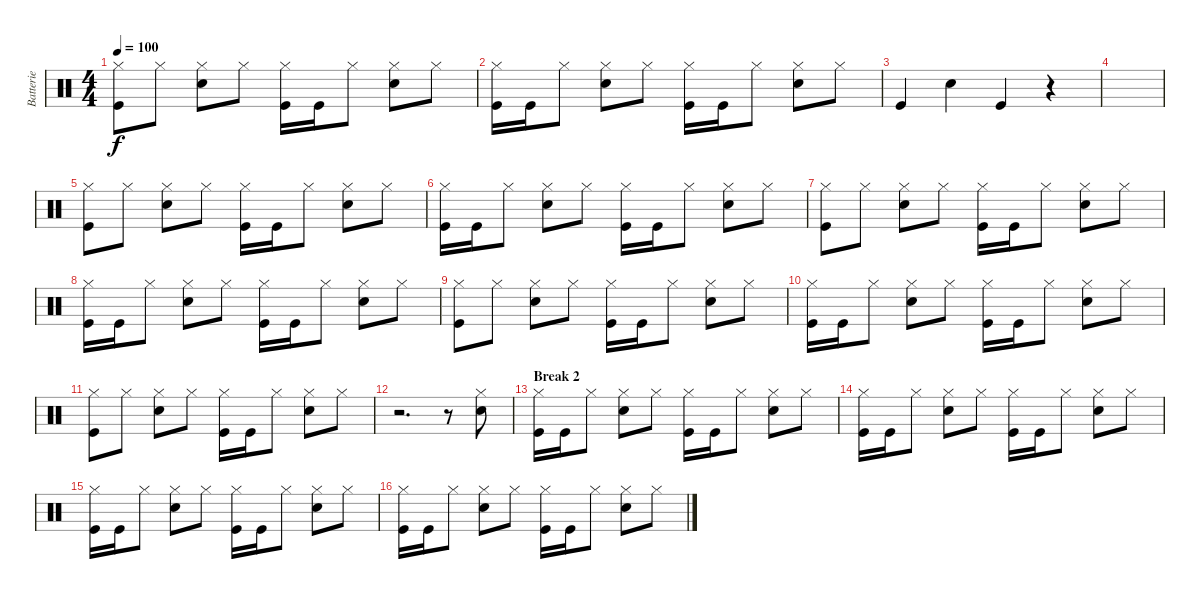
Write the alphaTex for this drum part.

\track ("Batterie " "Batterie ") {instrument percussion}
\staff {score}
\articulation defaults
\ts (4 4)
\tempo 100
\clef neutral
\ks c
("Hi-Hat (closed)" "Kick (hit)").8{dy f} "Hi-Hat (closed)".8 ("Electric Snare (hit)" "Hi-Hat (closed)").8 "Hi-Hat (closed)".8 ("Hi-Hat (closed)" "Kick (hit)").16 "Kick (hit)".16 "Hi-Hat (closed)".8 ("Electric Snare (hit)" "Hi-Hat (closed)").8 "Hi-Hat (closed)".8 |
("Hi-Hat (closed)" "Kick (hit)").16 "Kick (hit)".16 "Hi-Hat (closed)".8 ("Electric Snare (hit)" "Hi-Hat (closed)").8 "Hi-Hat (closed)".8 ("Hi-Hat (closed)" "Kick (hit)").16 "Kick (hit)".16 "Hi-Hat (closed)".8 ("Electric Snare (hit)" "Hi-Hat (closed)").8 "Hi-Hat (closed)".8 |
"Kick (hit)".4 "Electric Snare (hit)".4 "Kick (hit)".4 r.4 |
|
("Hi-Hat (closed)" "Kick (hit)").8 "Hi-Hat (closed)".8 ("Electric Snare (hit)" "Hi-Hat (closed)").8 "Hi-Hat (closed)".8 ("Hi-Hat (closed)" "Kick (hit)").16 "Kick (hit)".16 "Hi-Hat (closed)".8 ("Electric Snare (hit)" "Hi-Hat (closed)").8 "Hi-Hat (closed)".8 |
("Hi-Hat (closed)" "Kick (hit)").16 "Kick (hit)".16 "Hi-Hat (closed)".8 ("Electric Snare (hit)" "Hi-Hat (closed)").8 "Hi-Hat (closed)".8 ("Hi-Hat (closed)" "Kick (hit)").16 "Kick (hit)".16 "Hi-Hat (closed)".8 ("Electric Snare (hit)" "Hi-Hat (closed)").8 "Hi-Hat (closed)".8 |
("Hi-Hat (closed)" "Kick (hit)").8 "Hi-Hat (closed)".8 ("Electric Snare (hit)" "Hi-Hat (closed)").8 "Hi-Hat (closed)".8 ("Hi-Hat (closed)" "Kick (hit)").16 "Kick (hit)".16 "Hi-Hat (closed)".8 ("Electric Snare (hit)" "Hi-Hat (closed)").8 "Hi-Hat (closed)".8 |
("Hi-Hat (closed)" "Kick (hit)").16 "Kick (hit)".16 "Hi-Hat (closed)".8 ("Electric Snare (hit)" "Hi-Hat (closed)").8 "Hi-Hat (closed)".8 ("Hi-Hat (closed)" "Kick (hit)").16 "Kick (hit)".16 "Hi-Hat (closed)".8 ("Electric Snare (hit)" "Hi-Hat (closed)").8 "Hi-Hat (closed)".8 |
("Hi-Hat (closed)" "Kick (hit)").8 "Hi-Hat (closed)".8 ("Electric Snare (hit)" "Hi-Hat (closed)").8 "Hi-Hat (closed)".8 ("Hi-Hat (closed)" "Kick (hit)").16 "Kick (hit)".16 "Hi-Hat (closed)".8 ("Electric Snare (hit)" "Hi-Hat (closed)").8 "Hi-Hat (closed)".8 |
("Hi-Hat (closed)" "Kick (hit)").16 "Kick (hit)".16 "Hi-Hat (closed)".8 ("Electric Snare (hit)" "Hi-Hat (closed)").8 "Hi-Hat (closed)".8 ("Hi-Hat (closed)" "Kick (hit)").16 "Kick (hit)".16 "Hi-Hat (closed)".8 ("Electric Snare (hit)" "Hi-Hat (closed)").8 "Hi-Hat (closed)".8 |
("Hi-Hat (closed)" "Kick (hit)").8 "Hi-Hat (closed)".8 ("Electric Snare (hit)" "Hi-Hat (closed)").8 "Hi-Hat (closed)".8 ("Hi-Hat (closed)" "Kick (hit)").16 "Kick (hit)".16 "Hi-Hat (closed)".8 ("Electric Snare (hit)" "Hi-Hat (closed)").8 "Hi-Hat (closed)".8 |
r.2{d} r.8 ("Electric Snare (hit)" "Hi-Hat (closed)").8 |
\section ("" "Break 2")
("Hi-Hat (closed)" "Kick (hit)").16 "Kick (hit)".16 "Hi-Hat (closed)".8 ("Electric Snare (hit)" "Hi-Hat (closed)").8 "Hi-Hat (closed)".8 ("Hi-Hat (closed)" "Kick (hit)").16 "Kick (hit)".16 "Hi-Hat (closed)".8 ("Electric Snare (hit)" "Hi-Hat (closed)").8 "Hi-Hat (closed)".8 |
("Hi-Hat (closed)" "Kick (hit)").16 "Kick (hit)".16 "Hi-Hat (closed)".8 ("Electric Snare (hit)" "Hi-Hat (closed)").8 "Hi-Hat (closed)".8 ("Hi-Hat (closed)" "Kick (hit)").16 "Kick (hit)".16 "Hi-Hat (closed)".8 ("Electric Snare (hit)" "Hi-Hat (closed)").8 "Hi-Hat (closed)".8 |
("Hi-Hat (closed)" "Kick (hit)").16 "Kick (hit)".16 "Hi-Hat (closed)".8 ("Electric Snare (hit)" "Hi-Hat (closed)").8 "Hi-Hat (closed)".8 ("Hi-Hat (closed)" "Kick (hit)").16 "Kick (hit)".16 "Hi-Hat (closed)".8 ("Electric Snare (hit)" "Hi-Hat (closed)").8 "Hi-Hat (closed)".8 |
("Hi-Hat (closed)" "Kick (hit)").16 "Kick (hit)".16 "Hi-Hat (closed)".8 ("Electric Snare (hit)" "Hi-Hat (closed)").8 "Hi-Hat (closed)".8 ("Hi-Hat (closed)" "Kick (hit)").16 "Kick (hit)".16 "Hi-Hat (closed)".8 ("Electric Snare (hit)" "Hi-Hat (closed)").8 "Hi-Hat (closed)".8
